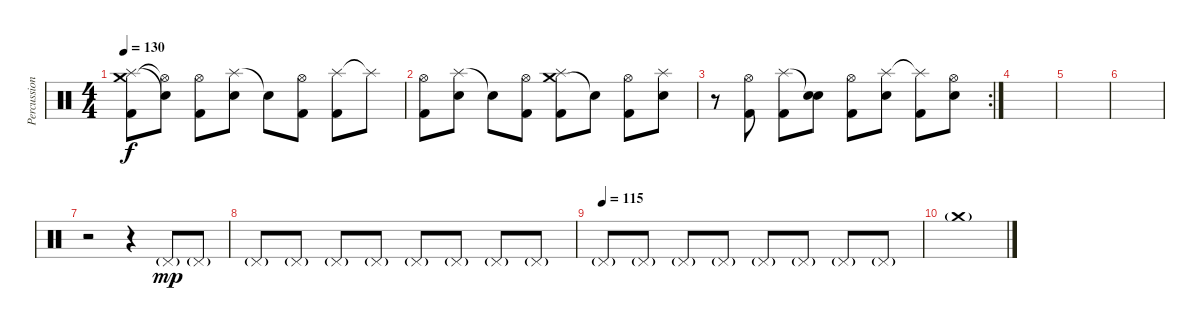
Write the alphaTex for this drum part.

\track ("Percussion" "Percussion") {instrument percussion}
\staff {score}
\articulation defaults
\ts (4 4)
\tempo 130
\clef neutral
\ks c
("Crash medium (hit)" "Splash (hit)" "Kick (hit) 2").8{dy f} ("Hi-Hat (open)"{t} "Snare (hit)"{t}).8 ("Hi-Hat (open)" "Kick (hit) 2").8 ("Splash (hit)" "Electric Snare (hit)").8 "Snare (hit)"{t}.8 ("Hi-Hat (open)" "Kick (hit) 2").8 ("Splash (hit)" "Kick (hit) 2").8 "Splash (hit)"{t}.8 |
("Hi-Hat (open)" "Kick (hit) 2").8 ("Splash (hit)" "Electric Snare (hit)").8 "Snare (hit)"{t}.8 ("Hi-Hat (open)" "Kick (hit) 2").8 ("Crash medium (hit)" "Splash (hit)" "Kick (hit) 2").8 "Snare (hit)"{t}.8 ("Hi-Hat (open)" "Kick (hit) 2").8 ("Splash (hit)" "Electric Snare (hit)").8 |
\rc 2
r.8 ("Hi-Hat (open)" "Kick (hit) 2").8 ("Splash (hit)" "Kick (hit) 2").8 ("Snare (hit)"{t} "Electric Snare (hit)").8 ("Hi-Hat (open)" "Kick (hit) 2").8 ("Splash (hit)" "Electric Snare (hit)").8 ("Splash (hit)"{t} "Kick (hit) 2").8 ("Hi-Hat (open)" "Electric Snare (hit)").8 |
|
|
|
r.2 r.4 "Pedal Hi-Hat (hit)"{g}.8{dy mp} "Pedal Hi-Hat (hit)"{g}.8 |
"Pedal Hi-Hat (hit)"{g}.8 "Pedal Hi-Hat (hit)"{g}.8 "Pedal Hi-Hat (hit)"{g}.8 "Pedal Hi-Hat (hit)"{g}.8 "Pedal Hi-Hat (hit)"{g}.8 "Pedal Hi-Hat (hit)"{g}.8 "Pedal Hi-Hat (hit)"{g}.8 "Pedal Hi-Hat (hit)"{g}.8 |
\tempo (115)
"Pedal Hi-Hat (hit)"{g}.8 "Pedal Hi-Hat (hit)"{g}.8 "Pedal Hi-Hat (hit)"{g}.8 "Pedal Hi-Hat (hit)"{g}.8 "Pedal Hi-Hat (hit)"{g}.8 "Pedal Hi-Hat (hit)"{g}.8 "Pedal Hi-Hat (hit)"{g}.8 "Pedal Hi-Hat (hit)"{g}.8 |
"Crash medium (hit)"{g}.1
